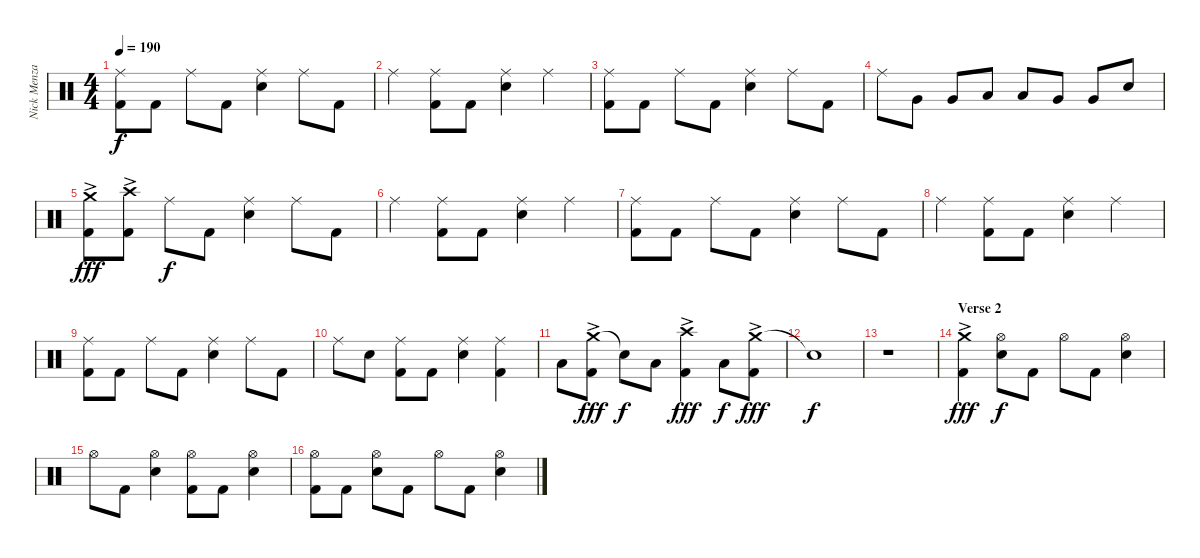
\track ("Nick Menza" "Nick Menza") {instrument percussion}
\staff {score}
\articulation defaults
\ts (4 4)
\tempo 190
\clef neutral
\ks c
("Ride (middle)" "Kick (hit) 2").8{dy f} "Kick (hit) 2".8 "Ride (middle)".8 "Kick (hit) 2".8 ("Ride (middle)" "Snare (hit) 2").4 "Ride (middle)".8 "Kick (hit) 2".8 |
"Ride (middle)".4 ("Ride (middle)" "Kick (hit) 2").8 "Kick (hit) 2".8 ("Ride (middle)" "Snare (hit) 2").4 "Ride (middle)".4 |
("Ride (middle)" "Kick (hit) 2").8 "Kick (hit) 2".8 "Ride (middle)".8 "Kick (hit) 2".8 ("Ride (middle)" "Snare (hit) 2").4 "Ride (middle)".8 "Kick (hit) 2".8 |
"Ride (middle)".8 "Very Low Tom (hit)".8 "Very Low Tom (hit)".8 "Low Tom (hit)".8 "Low Tom (hit)".8 "Very Low Tom (hit)".8 "Very Low Tom (hit)".8 "Snare (hit) 2".8 |
("Crash medium (hit)"{ac} "Kick (hit) 2").8{dy fff} ("Crash high (hit)"{ac} "Kick (hit) 2").8 "Ride (middle)".8{dy f} "Kick (hit) 2".8 ("Ride (middle)" "Snare (hit) 2").4 "Ride (middle)".8 "Kick (hit) 2".8 |
"Ride (middle)".4 ("Ride (middle)" "Kick (hit) 2").8 "Kick (hit) 2".8 ("Ride (middle)" "Snare (hit) 2").4 "Ride (middle)".4 |
("Ride (middle)" "Kick (hit) 2").8 "Kick (hit) 2".8 "Ride (middle)".8 "Kick (hit) 2".8 ("Ride (middle)" "Snare (hit) 2").4 "Ride (middle)".8 "Kick (hit) 2".8 |
"Ride (middle)".4 ("Ride (middle)" "Kick (hit) 2").8 "Kick (hit) 2".8 ("Ride (middle)" "Snare (hit) 2").4 "Ride (middle)".4 |
("Ride (middle)" "Kick (hit) 2").8 "Kick (hit) 2".8 "Ride (middle)".8 "Kick (hit) 2".8 ("Ride (middle)" "Snare (hit) 2").4 "Ride (middle)".8 "Kick (hit) 2".8 |
"Ride (middle)".8 "Snare (hit) 2".8 ("Ride (middle)" "Kick (hit) 2").8 "Kick (hit) 2".8 ("Ride (middle)" "Snare (hit) 2").4 ("Ride (middle)" "Kick (hit) 2").4 |
"Low Tom (hit)".8 ("Crash medium (hit)"{ac} "Kick (hit) 2").8{dy fff} "Snare (hit)"{t}.8{dy f} "Low Tom (hit)".8 ("Crash high (hit)"{ac} "Kick (hit) 2").4{dy fff} "Low Tom (hit)".8{dy f} ("Crash medium (hit)"{ac} "Kick (hit) 2").8{dy fff} |
"Snare (hit)"{t}.1{dy f} |
r.1 |
\section ("" "Verse 2")
("Crash medium (hit)"{ac} "Kick (hit) 2").4{dy fff} ("Hi-Hat (open)" "Snare (hit) 2").8{dy f} "Kick (hit) 2".8 "Hi-Hat (open)".8 "Kick (hit) 2".8 ("Hi-Hat (open)" "Snare (hit) 2").4 |
"Hi-Hat (open)".8 "Kick (hit) 2".8 ("Hi-Hat (open)" "Snare (hit) 2").4 ("Hi-Hat (open)" "Kick (hit) 2").8 "Kick (hit) 2".8 ("Hi-Hat (open)" "Snare (hit) 2").4 |
("Hi-Hat (open)" "Kick (hit) 2").8 "Kick (hit) 2".8 ("Hi-Hat (open)" "Snare (hit) 2").8 "Kick (hit) 2".8 "Hi-Hat (open)".8 "Kick (hit) 2".8 ("Hi-Hat (open)" "Snare (hit) 2").4
